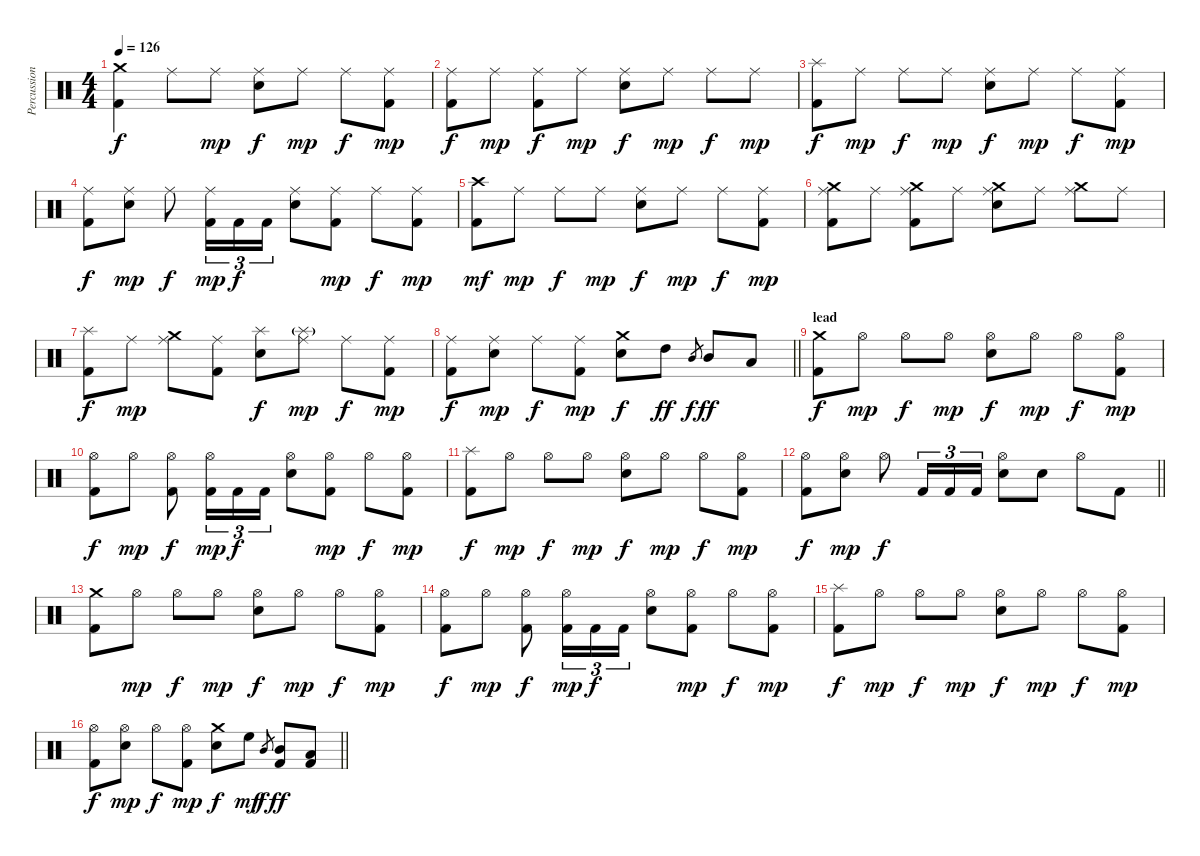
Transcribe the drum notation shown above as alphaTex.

\track ("Percussion" "Percussion") {instrument percussion}
\staff {score}
\articulation defaults
\ts (4 4)
\tempo 126
\clef neutral
\ks c
("Crash medium (hit)" "Kick (hit) 2").4{dy f} "Ride (middle)".8 "Ride (middle)".8{dy mp} ("Ride (middle)" "Electric Snare (hit)").8{dy f} "Ride (middle)".8{dy mp} "Ride (middle)".8{dy f} ("Ride (middle)" "Kick (hit) 2").8{dy mp} |
("Ride (middle)" "Kick (hit) 2").8{dy f} "Ride (middle)".8{dy mp} ("Ride (middle)" "Kick (hit) 2").8{dy f} "Ride (middle)".8{dy mp} ("Ride (middle)" "Electric Snare (hit)").8{dy f} "Ride (middle)".8{dy mp} "Ride (middle)".8{dy f} "Ride (middle)".8{dy mp} |
("Splash (hit)" "Kick (hit) 2").8{dy f} "Ride (middle)".8{dy mp} "Ride (middle)".8{dy f} "Ride (middle)".8{dy mp} ("Ride (middle)" "Electric Snare (hit)").8{dy f} "Ride (middle)".8{dy mp} "Ride (middle)".8{dy f} ("Ride (middle)" "Kick (hit) 2").8{dy mp} |
("Ride (middle)" "Kick (hit) 2").8{dy f} ("Ride (middle)" "Electric Snare (hit)").8{dy mp} "Ride (middle)".8{dy f} ("Ride (middle)" "Kick (hit) 2").16{tu (3 2) dy mp} "Kick (hit) 2".16{tu (3 2) dy f} "Kick (hit) 2".16{tu (3 2)} ("Ride (middle)" "Electric Snare (hit)").8 ("Ride (middle)" "Kick (hit) 2").8{dy mp} "Ride (middle)".8{dy f} ("Ride (middle)" "Kick (hit) 2").8{dy mp} |
("Crash high (hit)" "Kick (hit) 2").8{dy mf} "Ride (middle)".8{dy mp} "Ride (middle)".8{dy f} "Ride (middle)".8{dy mp} ("Ride (middle)" "Electric Snare (hit)").8{dy f} "Ride (middle)".8{dy mp} "Ride (middle)".8{dy f} ("Ride (middle)" "Kick (hit) 2").8{dy mp} |
("Crash medium (hit)" "Ride (middle)" "Kick (hit) 2").8 "Ride (middle)".8 ("Crash medium (hit)" "Ride (middle)" "Kick (hit) 2").8 "Ride (middle)".8 ("Crash medium (hit)" "Ride (middle)" "Electric Snare (hit)").8 "Ride (middle)".8 ("Crash medium (hit)" "Ride (middle)").8 "Ride (middle)".8 |
("Splash (hit)" "Kick (hit) 2").8{dy f} "Ride (middle)".8{dy mp} ("Crash medium (hit)" "Ride (middle)").8 ("Ride (middle)" "Kick (hit) 2").8 ("Splash (hit)" "Electric Snare (hit)").8{dy f} ("Splash (hit)"{g} "Ride (middle)").8{dy mp} "Ride (middle)".8{dy f} ("Ride (middle)" "Kick (hit) 2").8{dy mp} |
\barLineRight lightlight
("Ride (middle)" "Kick (hit) 2").8{dy f} ("Ride (middle)" "Electric Snare (hit)").8{dy mp} "Ride (middle)".8{dy f} ("Ride (middle)" "Kick (hit) 2").8{dy mp} ("Crash medium (hit)" "Electric Snare (hit)").8{dy f} "High Tom (hit)".8{dy ff} "Mid Tom (hit)".8{gr dy f} "Mid Tom (hit)".8{dy ff} "Low Tom (hit)".8 |
\section ("" "lead")
("Crash medium (hit)" "Kick (hit) 2").8{dy f} "Hi-Hat (open)".8{dy mp} "Hi-Hat (open)".8{dy f} "Hi-Hat (open)".8{dy mp} ("Hi-Hat (open)" "Electric Snare (hit)").8{dy f} "Hi-Hat (open)".8{dy mp} "Hi-Hat (open)".8{dy f} ("Hi-Hat (open)" "Kick (hit) 2").8{dy mp} |
("Hi-Hat (open)" "Kick (hit) 2").8{dy f} "Hi-Hat (open)".8{dy mp} ("Hi-Hat (open)" "Kick (hit) 2").8{dy f} ("Hi-Hat (open)" "Kick (hit) 2").16{tu (3 2) dy mp} "Kick (hit) 2".16{tu (3 2) dy f} "Kick (hit) 2".16{tu (3 2)} ("Hi-Hat (open)" "Electric Snare (hit)").8 ("Hi-Hat (open)" "Kick (hit) 2").8{dy mp} "Hi-Hat (open)".8{dy f} ("Hi-Hat (open)" "Kick (hit) 2").8{dy mp} |
("Splash (hit)" "Kick (hit) 2").8{dy f} "Hi-Hat (open)".8{dy mp} "Hi-Hat (open)".8{dy f} "Hi-Hat (open)".8{dy mp} ("Hi-Hat (open)" "Electric Snare (hit)").8{dy f} "Hi-Hat (open)".8{dy mp} "Hi-Hat (open)".8{dy f} ("Hi-Hat (open)" "Kick (hit) 2").8{dy mp} |
\barLineRight lightlight
("Hi-Hat (open)" "Kick (hit) 2").8{dy f} ("Hi-Hat (open)" "Electric Snare (hit)").8{dy mp} "Hi-Hat (open)".8{dy f} "Kick (hit) 2".16{tu (3 2)} "Kick (hit) 2".16{tu (3 2)} "Kick (hit) 2".16{tu (3 2)} ("Hi-Hat (open)" "Electric Snare (hit)").8 "Electric Snare (hit)".8 "Hi-Hat (open)".8 "Kick (hit) 2".8 |
("Crash medium (hit)" "Kick (hit) 2").8 "Hi-Hat (open)".8{dy mp} "Hi-Hat (open)".8{dy f} "Hi-Hat (open)".8{dy mp} ("Hi-Hat (open)" "Electric Snare (hit)").8{dy f} "Hi-Hat (open)".8{dy mp} "Hi-Hat (open)".8{dy f} ("Hi-Hat (open)" "Kick (hit) 2").8{dy mp} |
("Hi-Hat (open)" "Kick (hit) 2").8{dy f} "Hi-Hat (open)".8{dy mp} ("Hi-Hat (open)" "Kick (hit) 2").8{dy f} ("Hi-Hat (open)" "Kick (hit) 2").16{tu (3 2) dy mp} "Kick (hit) 2".16{tu (3 2) dy f} "Kick (hit) 2".16{tu (3 2)} ("Hi-Hat (open)" "Electric Snare (hit)").8 ("Hi-Hat (open)" "Kick (hit) 2").8{dy mp} "Hi-Hat (open)".8{dy f} ("Hi-Hat (open)" "Kick (hit) 2").8{dy mp} |
("Splash (hit)" "Kick (hit) 2").8{dy f} "Hi-Hat (open)".8{dy mp} "Hi-Hat (open)".8{dy f} "Hi-Hat (open)".8{dy mp} ("Hi-Hat (open)" "Electric Snare (hit)").8{dy f} "Hi-Hat (open)".8{dy mp} "Hi-Hat (open)".8{dy f} ("Hi-Hat (open)" "Kick (hit) 2").8{dy mp} |
\barLineRight lightlight
("Hi-Hat (open)" "Kick (hit) 2").8{dy f} ("Hi-Hat (open)" "Electric Snare (hit)").8{dy mp} "Hi-Hat (open)".8{dy f} ("Hi-Hat (open)" "Kick (hit) 2").8{dy mp} ("Crash medium (hit)" "Electric Snare (hit)").8{dy f} "High Floor Tom (hit)".8{dy mf} "Mid Tom (hit)".8{gr dy f} ("Mid Tom (hit)" "Kick (hit) 2").8{dy ff} ("Low Tom (hit)" "Kick (hit) 2").8
